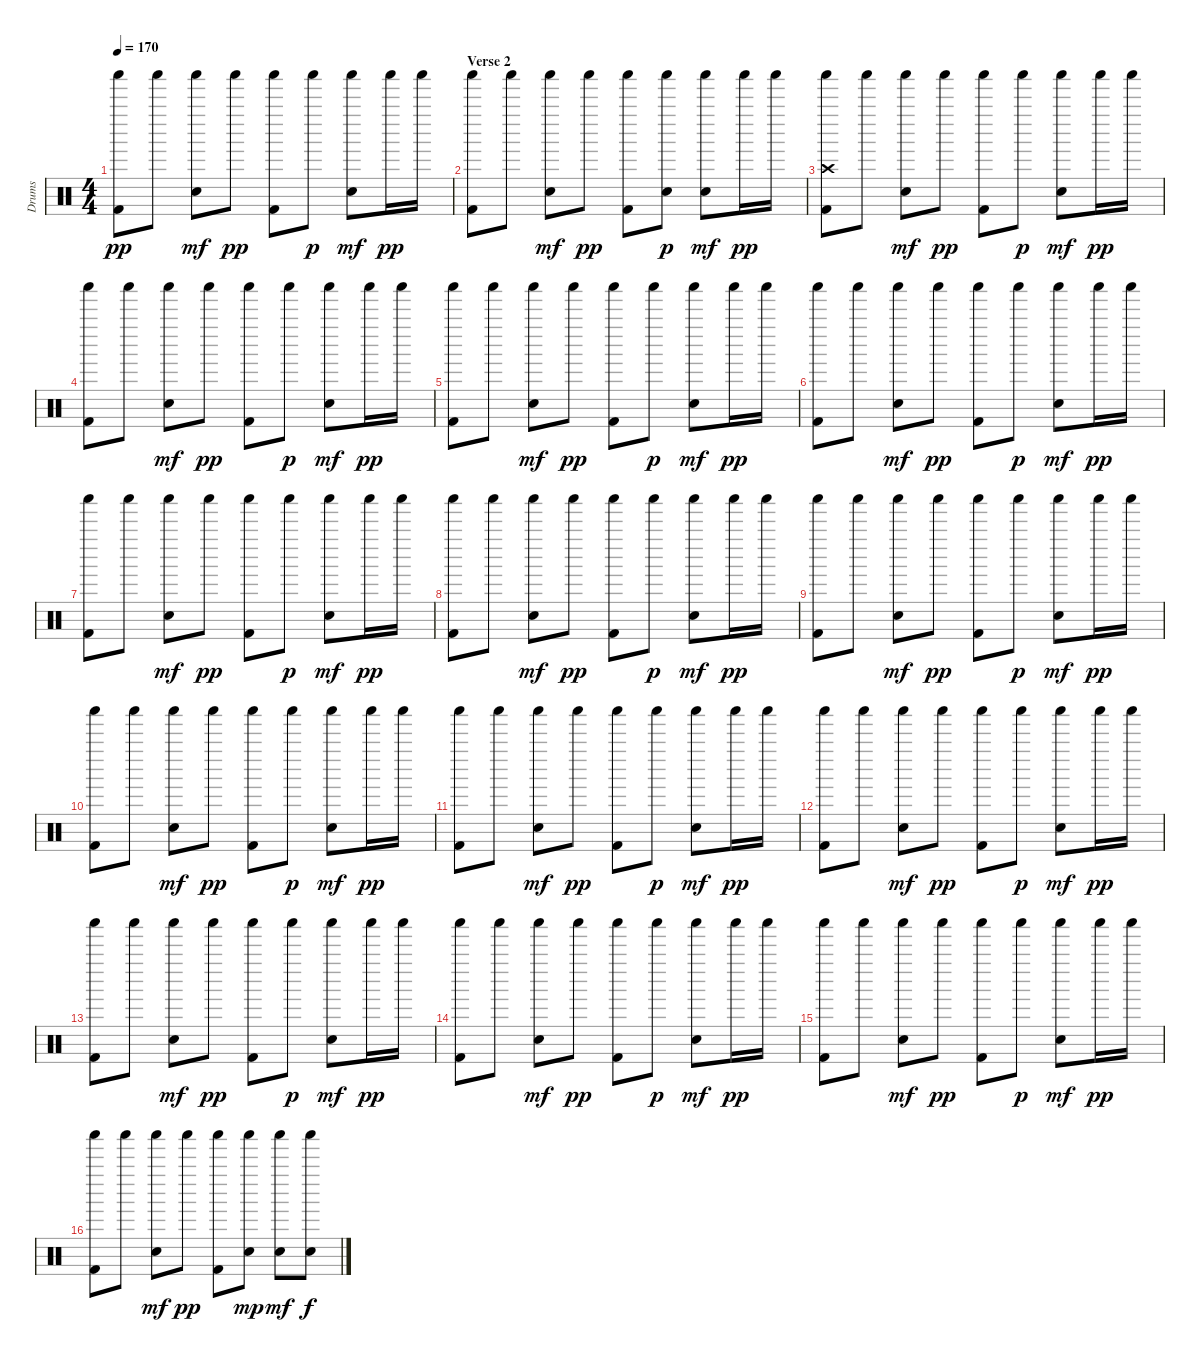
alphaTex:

\track ("Drums" "Drums") {instrument percussion}
\staff {score}
\articulation defaults
\ts (4 4)
\tempo 170
\clef neutral
\ks c
("Kick (hit) 2" "Shaker (hit)").8{dy pp} "Shaker (hit)".8 ("Snare (hit) 2" "Shaker (hit)").8{dy mf} "Shaker (hit)".8{dy pp} ("Kick (hit) 2" "Shaker (hit)").8 "Shaker (hit)".8{dy p} ("Snare (hit) 2" "Shaker (hit)").8{dy mf} "Shaker (hit)".16{dy pp} "Shaker (hit)".16 |
\section ("" "Verse 2")
("Kick (hit) 2" "Shaker (hit)").8 "Shaker (hit)".8 ("Snare (hit) 2" "Shaker (hit)").8{dy mf} "Shaker (hit)".8{dy pp} ("Kick (hit) 2" "Shaker (hit)").8 ("Snare (hit) 2" "Shaker (hit)").8{dy p} ("Snare (hit) 2" "Shaker (hit)").8{dy mf} "Shaker (hit)".16{dy pp} "Shaker (hit)".16 |
("Crash high (hit)" "Kick (hit) 2" "Shaker (hit)").8 "Shaker (hit)".8 ("Snare (hit) 2" "Shaker (hit)").8{dy mf} "Shaker (hit)".8{dy pp} ("Kick (hit) 2" "Shaker (hit)").8 "Shaker (hit)".8{dy p} ("Snare (hit) 2" "Shaker (hit)").8{dy mf} "Shaker (hit)".16{dy pp} "Shaker (hit)".16 |
("Kick (hit) 2" "Shaker (hit)").8 "Shaker (hit)".8 ("Snare (hit) 2" "Shaker (hit)").8{dy mf} "Shaker (hit)".8{dy pp} ("Kick (hit) 2" "Shaker (hit)").8 "Shaker (hit)".8{dy p} ("Snare (hit) 2" "Shaker (hit)").8{dy mf} "Shaker (hit)".16{dy pp} "Shaker (hit)".16 |
("Kick (hit) 2" "Shaker (hit)").8 "Shaker (hit)".8 ("Snare (hit) 2" "Shaker (hit)").8{dy mf} "Shaker (hit)".8{dy pp} ("Kick (hit) 2" "Shaker (hit)").8 "Shaker (hit)".8{dy p} ("Snare (hit) 2" "Shaker (hit)").8{dy mf} "Shaker (hit)".16{dy pp} "Shaker (hit)".16 |
("Kick (hit) 2" "Shaker (hit)").8 "Shaker (hit)".8 ("Snare (hit) 2" "Shaker (hit)").8{dy mf} "Shaker (hit)".8{dy pp} ("Kick (hit) 2" "Shaker (hit)").8 "Shaker (hit)".8{dy p} ("Snare (hit) 2" "Shaker (hit)").8{dy mf} "Shaker (hit)".16{dy pp} "Shaker (hit)".16 |
("Kick (hit) 2" "Shaker (hit)").8 "Shaker (hit)".8 ("Snare (hit) 2" "Shaker (hit)").8{dy mf} "Shaker (hit)".8{dy pp} ("Kick (hit) 2" "Shaker (hit)").8 "Shaker (hit)".8{dy p} ("Snare (hit) 2" "Shaker (hit)").8{dy mf} "Shaker (hit)".16{dy pp} "Shaker (hit)".16 |
("Kick (hit) 2" "Shaker (hit)").8 "Shaker (hit)".8 ("Snare (hit) 2" "Shaker (hit)").8{dy mf} "Shaker (hit)".8{dy pp} ("Kick (hit) 2" "Shaker (hit)").8 "Shaker (hit)".8{dy p} ("Snare (hit) 2" "Shaker (hit)").8{dy mf} "Shaker (hit)".16{dy pp} "Shaker (hit)".16 |
("Kick (hit) 2" "Shaker (hit)").8 "Shaker (hit)".8 ("Snare (hit) 2" "Shaker (hit)").8{dy mf} "Shaker (hit)".8{dy pp} ("Kick (hit) 2" "Shaker (hit)").8 "Shaker (hit)".8{dy p} ("Snare (hit) 2" "Shaker (hit)").8{dy mf} "Shaker (hit)".16{dy pp} "Shaker (hit)".16 |
("Kick (hit) 2" "Shaker (hit)").8 "Shaker (hit)".8 ("Snare (hit) 2" "Shaker (hit)").8{dy mf} "Shaker (hit)".8{dy pp} ("Kick (hit) 2" "Shaker (hit)").8 "Shaker (hit)".8{dy p} ("Snare (hit) 2" "Shaker (hit)").8{dy mf} "Shaker (hit)".16{dy pp} "Shaker (hit)".16 |
("Kick (hit) 2" "Shaker (hit)").8 "Shaker (hit)".8 ("Snare (hit) 2" "Shaker (hit)").8{dy mf} "Shaker (hit)".8{dy pp} ("Kick (hit) 2" "Shaker (hit)").8 "Shaker (hit)".8{dy p} ("Snare (hit) 2" "Shaker (hit)").8{dy mf} "Shaker (hit)".16{dy pp} "Shaker (hit)".16 |
("Kick (hit) 2" "Shaker (hit)").8 "Shaker (hit)".8 ("Snare (hit) 2" "Shaker (hit)").8{dy mf} "Shaker (hit)".8{dy pp} ("Kick (hit) 2" "Shaker (hit)").8 "Shaker (hit)".8{dy p} ("Snare (hit) 2" "Shaker (hit)").8{dy mf} "Shaker (hit)".16{dy pp} "Shaker (hit)".16 |
("Kick (hit) 2" "Shaker (hit)").8 "Shaker (hit)".8 ("Snare (hit) 2" "Shaker (hit)").8{dy mf} "Shaker (hit)".8{dy pp} ("Kick (hit) 2" "Shaker (hit)").8 "Shaker (hit)".8{dy p} ("Snare (hit) 2" "Shaker (hit)").8{dy mf} "Shaker (hit)".16{dy pp} "Shaker (hit)".16 |
("Kick (hit) 2" "Shaker (hit)").8 "Shaker (hit)".8 ("Snare (hit) 2" "Shaker (hit)").8{dy mf} "Shaker (hit)".8{dy pp} ("Kick (hit) 2" "Shaker (hit)").8 "Shaker (hit)".8{dy p} ("Snare (hit) 2" "Shaker (hit)").8{dy mf} "Shaker (hit)".16{dy pp} "Shaker (hit)".16 |
("Kick (hit) 2" "Shaker (hit)").8 "Shaker (hit)".8 ("Snare (hit) 2" "Shaker (hit)").8{dy mf} "Shaker (hit)".8{dy pp} ("Kick (hit) 2" "Shaker (hit)").8 "Shaker (hit)".8{dy p} ("Snare (hit) 2" "Shaker (hit)").8{dy mf} "Shaker (hit)".16{dy pp} "Shaker (hit)".16 |
("Kick (hit) 2" "Shaker (hit)").8 "Shaker (hit)".8 ("Snare (hit) 2" "Shaker (hit)").8{dy mf} "Shaker (hit)".8{dy pp} ("Kick (hit) 2" "Shaker (hit)").8 ("Snare (hit) 2" "Shaker (hit)").8{dy mp} ("Snare (hit) 2" "Shaker (hit)").8{dy mf} ("Snare (hit) 2" "Shaker (hit)").8{dy f}
